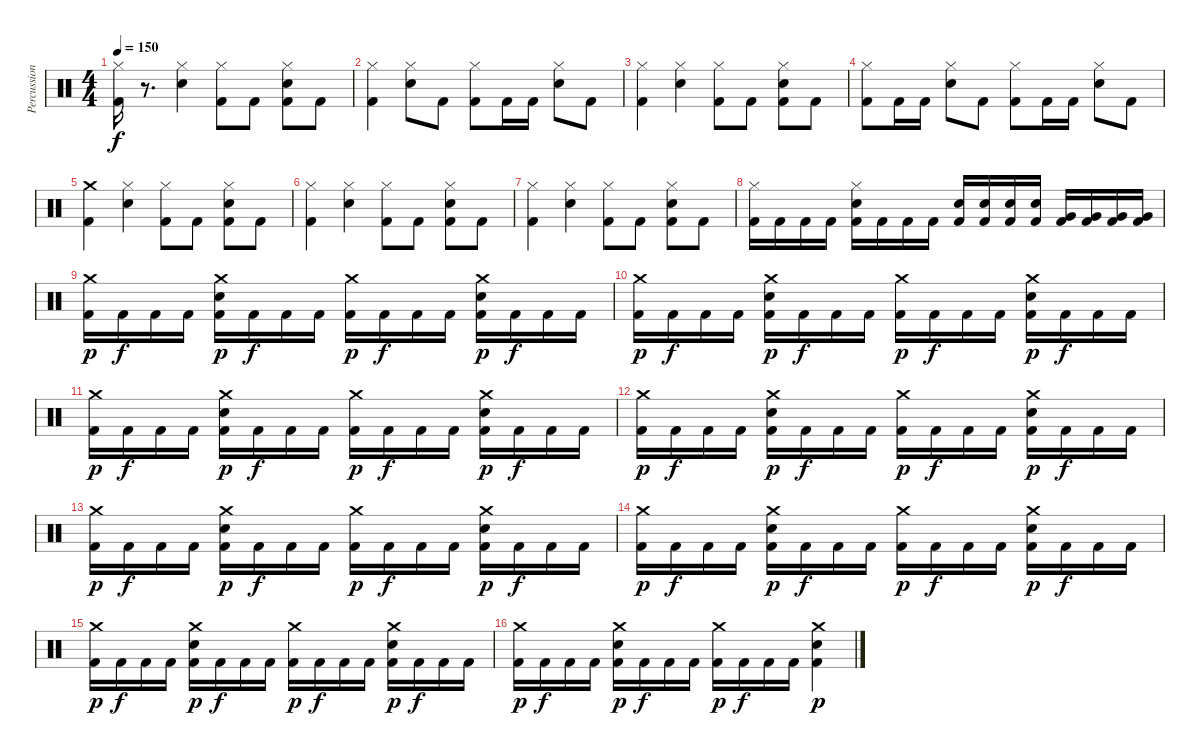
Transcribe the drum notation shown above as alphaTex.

\track ("Percussion" "Percussion") {instrument percussion}
\staff {score}
\articulation defaults
\ts (4 4)
\tempo 150
\clef neutral
\ks c
("Hi-Hat (closed)" "Kick (hit) 2").16{dy f} r.8{d} ("Electric Snare (hit)" "Hi-Hat (closed)").4 ("Hi-Hat (closed)" "Kick (hit) 2").8 "Kick (hit) 2".8 ("Electric Snare (hit)" "Hi-Hat (closed)" "Kick (hit) 2").8 "Kick (hit) 2".8 |
("Hi-Hat (closed)" "Kick (hit) 2").4 ("Electric Snare (hit)" "Hi-Hat (closed)").8 "Kick (hit) 2".8 ("Hi-Hat (closed)" "Kick (hit) 2").8 "Kick (hit) 2".16 "Kick (hit) 2".16 ("Electric Snare (hit)" "Hi-Hat (closed)").8 "Kick (hit) 2".8 |
("Hi-Hat (closed)" "Kick (hit) 2").4 ("Electric Snare (hit)" "Hi-Hat (closed)").4 ("Hi-Hat (closed)" "Kick (hit) 2").8 "Kick (hit) 2".8 ("Electric Snare (hit)" "Hi-Hat (closed)" "Kick (hit) 2").8 "Kick (hit) 2".8 |
("Hi-Hat (closed)" "Kick (hit) 2").8 "Kick (hit) 2".16 "Kick (hit) 2".16 ("Electric Snare (hit)" "Hi-Hat (closed)").8 "Kick (hit) 2".8 ("Hi-Hat (closed)" "Kick (hit) 2").8 "Kick (hit) 2".16 "Kick (hit) 2".16 ("Electric Snare (hit)" "Hi-Hat (closed)").8 "Kick (hit) 2".8 |
("Crash medium (hit)" "Kick (hit) 2").4 ("Electric Snare (hit)" "Hi-Hat (closed)").4 ("Hi-Hat (closed)" "Kick (hit) 2").8 "Kick (hit) 2".8 ("Electric Snare (hit)" "Hi-Hat (closed)" "Kick (hit) 2").8 "Kick (hit) 2".8 |
("Hi-Hat (closed)" "Kick (hit) 2").4 ("Electric Snare (hit)" "Hi-Hat (closed)").4 ("Hi-Hat (closed)" "Kick (hit) 2").8 "Kick (hit) 2".8 ("Electric Snare (hit)" "Hi-Hat (closed)" "Kick (hit) 2").8 "Kick (hit) 2".8 |
("Hi-Hat (closed)" "Kick (hit) 2").4 ("Electric Snare (hit)" "Hi-Hat (closed)").4 ("Hi-Hat (closed)" "Kick (hit) 2").8 "Kick (hit) 2".8 ("Electric Snare (hit)" "Hi-Hat (closed)" "Kick (hit) 2").8 "Kick (hit) 2".8 |
("Hi-Hat (closed)" "Kick (hit) 2").16 "Kick (hit) 2".16 "Kick (hit) 2".16 "Kick (hit) 2".16 ("Electric Snare (hit)" "Hi-Hat (closed)" "Kick (hit) 2").16 "Kick (hit) 2".16 "Kick (hit) 2".16 "Kick (hit) 2".16 ("Electric Snare (hit)" "Kick (hit) 2").16 ("Electric Snare (hit)" "Kick (hit) 2").16 ("Electric Snare (hit)" "Kick (hit) 2").16 ("Electric Snare (hit)" "Kick (hit) 2").16 ("Very Low Tom (hit)" "Kick (hit) 2").16 ("Very Low Tom (hit)" "Kick (hit) 2").16 ("Very Low Tom (hit)" "Kick (hit) 2").16 ("Very Low Tom (hit)" "Kick (hit) 2").16 |
("Crash medium (hit)" "Kick (hit) 2").16{dy p} "Kick (hit) 2".16{dy f} "Kick (hit) 2".16 "Kick (hit) 2".16 ("Crash medium (hit)" "Electric Snare (hit)" "Kick (hit) 2").16{dy p} "Kick (hit) 2".16{dy f} "Kick (hit) 2".16 "Kick (hit) 2".16 ("Crash medium (hit)" "Kick (hit) 2").16{dy p} "Kick (hit) 2".16{dy f} "Kick (hit) 2".16 "Kick (hit) 2".16 ("Crash medium (hit)" "Electric Snare (hit)" "Kick (hit) 2").16{dy p} "Kick (hit) 2".16{dy f} "Kick (hit) 2".16 "Kick (hit) 2".16 |
("Crash medium (hit)" "Kick (hit) 2").16{dy p} "Kick (hit) 2".16{dy f} "Kick (hit) 2".16 "Kick (hit) 2".16 ("Crash medium (hit)" "Electric Snare (hit)" "Kick (hit) 2").16{dy p} "Kick (hit) 2".16{dy f} "Kick (hit) 2".16 "Kick (hit) 2".16 ("Crash medium (hit)" "Kick (hit) 2").16{dy p} "Kick (hit) 2".16{dy f} "Kick (hit) 2".16 "Kick (hit) 2".16 ("Crash medium (hit)" "Electric Snare (hit)" "Kick (hit) 2").16{dy p} "Kick (hit) 2".16{dy f} "Kick (hit) 2".16 "Kick (hit) 2".16 |
("Crash medium (hit)" "Kick (hit) 2").16{dy p} "Kick (hit) 2".16{dy f} "Kick (hit) 2".16 "Kick (hit) 2".16 ("Crash medium (hit)" "Electric Snare (hit)" "Kick (hit) 2").16{dy p} "Kick (hit) 2".16{dy f} "Kick (hit) 2".16 "Kick (hit) 2".16 ("Crash medium (hit)" "Kick (hit) 2").16{dy p} "Kick (hit) 2".16{dy f} "Kick (hit) 2".16 "Kick (hit) 2".16 ("Crash medium (hit)" "Electric Snare (hit)" "Kick (hit) 2").16{dy p} "Kick (hit) 2".16{dy f} "Kick (hit) 2".16 "Kick (hit) 2".16 |
("Crash medium (hit)" "Kick (hit) 2").16{dy p} "Kick (hit) 2".16{dy f} "Kick (hit) 2".16 "Kick (hit) 2".16 ("Crash medium (hit)" "Electric Snare (hit)" "Kick (hit) 2").16{dy p} "Kick (hit) 2".16{dy f} "Kick (hit) 2".16 "Kick (hit) 2".16 ("Crash medium (hit)" "Kick (hit) 2").16{dy p} "Kick (hit) 2".16{dy f} "Kick (hit) 2".16 "Kick (hit) 2".16 ("Crash medium (hit)" "Electric Snare (hit)" "Kick (hit) 2").16{dy p} "Kick (hit) 2".16{dy f} "Kick (hit) 2".16 "Kick (hit) 2".16 |
("Crash medium (hit)" "Kick (hit) 2").16{dy p} "Kick (hit) 2".16{dy f} "Kick (hit) 2".16 "Kick (hit) 2".16 ("Crash medium (hit)" "Electric Snare (hit)" "Kick (hit) 2").16{dy p} "Kick (hit) 2".16{dy f} "Kick (hit) 2".16 "Kick (hit) 2".16 ("Crash medium (hit)" "Kick (hit) 2").16{dy p} "Kick (hit) 2".16{dy f} "Kick (hit) 2".16 "Kick (hit) 2".16 ("Crash medium (hit)" "Electric Snare (hit)" "Kick (hit) 2").16{dy p} "Kick (hit) 2".16{dy f} "Kick (hit) 2".16 "Kick (hit) 2".16 |
("Crash medium (hit)" "Kick (hit) 2").16{dy p} "Kick (hit) 2".16{dy f} "Kick (hit) 2".16 "Kick (hit) 2".16 ("Crash medium (hit)" "Electric Snare (hit)" "Kick (hit) 2").16{dy p} "Kick (hit) 2".16{dy f} "Kick (hit) 2".16 "Kick (hit) 2".16 ("Crash medium (hit)" "Kick (hit) 2").16{dy p} "Kick (hit) 2".16{dy f} "Kick (hit) 2".16 "Kick (hit) 2".16 ("Crash medium (hit)" "Electric Snare (hit)" "Kick (hit) 2").16{dy p} "Kick (hit) 2".16{dy f} "Kick (hit) 2".16 "Kick (hit) 2".16 |
("Crash medium (hit)" "Kick (hit) 2").16{dy p} "Kick (hit) 2".16{dy f} "Kick (hit) 2".16 "Kick (hit) 2".16 ("Crash medium (hit)" "Electric Snare (hit)" "Kick (hit) 2").16{dy p} "Kick (hit) 2".16{dy f} "Kick (hit) 2".16 "Kick (hit) 2".16 ("Crash medium (hit)" "Kick (hit) 2").16{dy p} "Kick (hit) 2".16{dy f} "Kick (hit) 2".16 "Kick (hit) 2".16 ("Crash medium (hit)" "Electric Snare (hit)" "Kick (hit) 2").16{dy p} "Kick (hit) 2".16{dy f} "Kick (hit) 2".16 "Kick (hit) 2".16 |
("Crash medium (hit)" "Kick (hit) 2").16{dy p} "Kick (hit) 2".16{dy f} "Kick (hit) 2".16 "Kick (hit) 2".16 ("Crash medium (hit)" "Electric Snare (hit)" "Kick (hit) 2").16{dy p} "Kick (hit) 2".16{dy f} "Kick (hit) 2".16 "Kick (hit) 2".16 ("Crash medium (hit)" "Kick (hit) 2").16{dy p} "Kick (hit) 2".16{dy f} "Kick (hit) 2".16 "Kick (hit) 2".16 ("Crash medium (hit)" "Electric Snare (hit)" "Kick (hit) 2").4{dy p}
